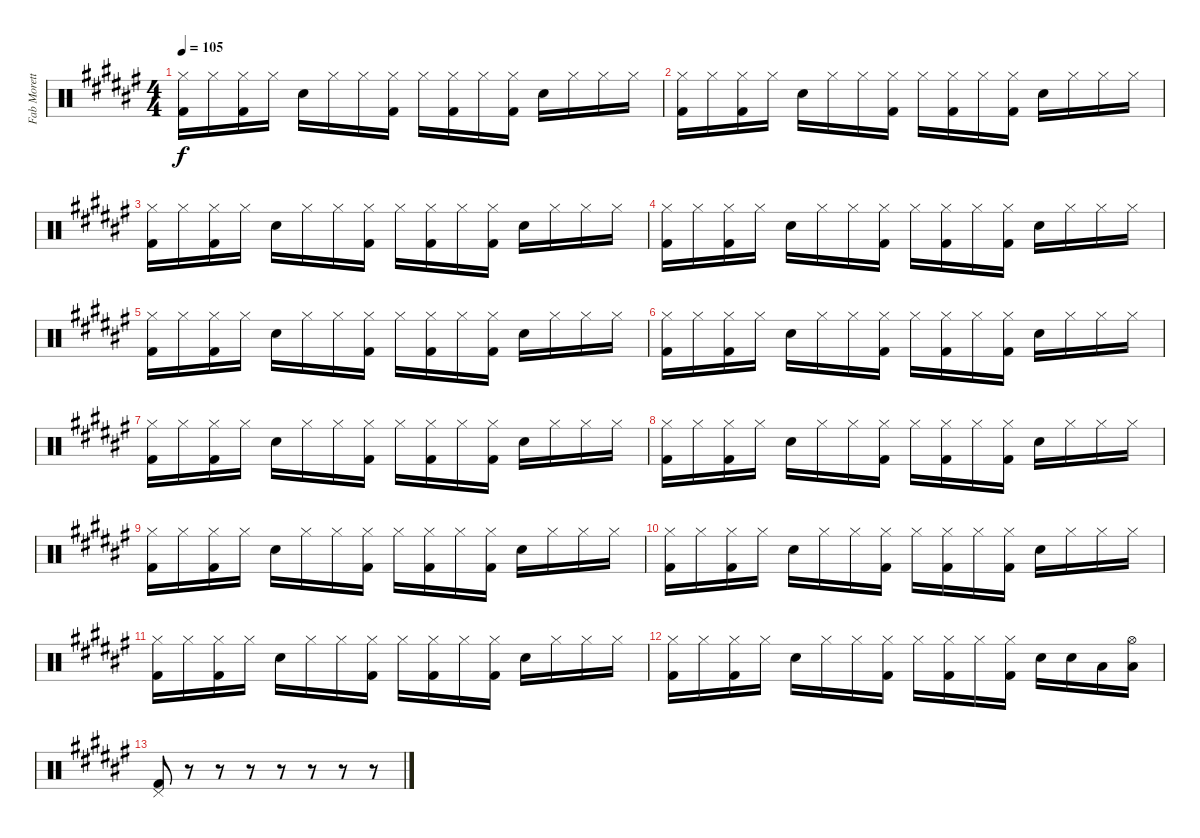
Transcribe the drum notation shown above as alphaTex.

\track ("Fab Moretti - Drums" "Fab Morett") {instrument percussion}
\staff {score}
\articulation defaults
\ts (4 4)
\tempo 105
\clef neutral
\ks f#
("Hi-Hat (closed)" "Kick (hit) 2").16{dy f} "Hi-Hat (closed)".16 ("Hi-Hat (closed)" "Kick (hit) 2").16 "Hi-Hat (closed)".16 "Snare (hit) 2".16 "Hi-Hat (closed)".16 "Hi-Hat (closed)".16 ("Hi-Hat (closed)" "Kick (hit) 2").16 "Hi-Hat (closed)".16 ("Hi-Hat (closed)" "Kick (hit) 2").16 "Hi-Hat (closed)".16 ("Hi-Hat (closed)" "Kick (hit) 2").16 "Snare (hit) 2".16 "Hi-Hat (closed)".16 "Hi-Hat (closed)".16 "Hi-Hat (closed)".16 |
("Hi-Hat (closed)" "Kick (hit) 2").16 "Hi-Hat (closed)".16 ("Hi-Hat (closed)" "Kick (hit) 2").16 "Hi-Hat (closed)".16 "Snare (hit) 2".16 "Hi-Hat (closed)".16 "Hi-Hat (closed)".16 ("Hi-Hat (closed)" "Kick (hit) 2").16 "Hi-Hat (closed)".16 ("Hi-Hat (closed)" "Kick (hit) 2").16 "Hi-Hat (closed)".16 ("Hi-Hat (closed)" "Kick (hit) 2").16 "Snare (hit) 2".16 "Hi-Hat (closed)".16 "Hi-Hat (closed)".16 "Hi-Hat (closed)".16 |
("Hi-Hat (closed)" "Kick (hit) 2").16 "Hi-Hat (closed)".16 ("Hi-Hat (closed)" "Kick (hit) 2").16 "Hi-Hat (closed)".16 "Snare (hit) 2".16 "Hi-Hat (closed)".16 "Hi-Hat (closed)".16 ("Hi-Hat (closed)" "Kick (hit) 2").16 "Hi-Hat (closed)".16 ("Hi-Hat (closed)" "Kick (hit) 2").16 "Hi-Hat (closed)".16 ("Hi-Hat (closed)" "Kick (hit) 2").16 "Snare (hit) 2".16 "Hi-Hat (closed)".16 "Hi-Hat (closed)".16 "Hi-Hat (closed)".16 |
("Hi-Hat (closed)" "Kick (hit) 2").16 "Hi-Hat (closed)".16 ("Hi-Hat (closed)" "Kick (hit) 2").16 "Hi-Hat (closed)".16 "Snare (hit) 2".16 "Hi-Hat (closed)".16 "Hi-Hat (closed)".16 ("Hi-Hat (closed)" "Kick (hit) 2").16 "Hi-Hat (closed)".16 ("Hi-Hat (closed)" "Kick (hit) 2").16 "Hi-Hat (closed)".16 ("Hi-Hat (closed)" "Kick (hit) 2").16 "Snare (hit) 2".16 "Hi-Hat (closed)".16 "Hi-Hat (closed)".16 "Hi-Hat (closed)".16 |
("Hi-Hat (closed)" "Kick (hit) 2").16 "Hi-Hat (closed)".16 ("Hi-Hat (closed)" "Kick (hit) 2").16 "Hi-Hat (closed)".16 "Snare (hit) 2".16 "Hi-Hat (closed)".16 "Hi-Hat (closed)".16 ("Hi-Hat (closed)" "Kick (hit) 2").16 "Hi-Hat (closed)".16 ("Hi-Hat (closed)" "Kick (hit) 2").16 "Hi-Hat (closed)".16 ("Hi-Hat (closed)" "Kick (hit) 2").16 "Snare (hit) 2".16 "Hi-Hat (closed)".16 "Hi-Hat (closed)".16 "Hi-Hat (closed)".16 |
("Hi-Hat (closed)" "Kick (hit) 2").16 "Hi-Hat (closed)".16 ("Hi-Hat (closed)" "Kick (hit) 2").16 "Hi-Hat (closed)".16 "Snare (hit) 2".16 "Hi-Hat (closed)".16 "Hi-Hat (closed)".16 ("Hi-Hat (closed)" "Kick (hit) 2").16 "Hi-Hat (closed)".16 ("Hi-Hat (closed)" "Kick (hit) 2").16 "Hi-Hat (closed)".16 ("Hi-Hat (closed)" "Kick (hit) 2").16 "Snare (hit) 2".16 "Hi-Hat (closed)".16 "Hi-Hat (closed)".16 "Hi-Hat (closed)".16 |
("Hi-Hat (closed)" "Kick (hit) 2").16 "Hi-Hat (closed)".16 ("Hi-Hat (closed)" "Kick (hit) 2").16 "Hi-Hat (closed)".16 "Snare (hit) 2".16 "Hi-Hat (closed)".16 "Hi-Hat (closed)".16 ("Hi-Hat (closed)" "Kick (hit) 2").16 "Hi-Hat (closed)".16 ("Hi-Hat (closed)" "Kick (hit) 2").16 "Hi-Hat (closed)".16 ("Hi-Hat (closed)" "Kick (hit) 2").16 "Snare (hit) 2".16 "Hi-Hat (closed)".16 "Hi-Hat (closed)".16 "Hi-Hat (closed)".16 |
("Hi-Hat (closed)" "Kick (hit) 2").16 "Hi-Hat (closed)".16 ("Hi-Hat (closed)" "Kick (hit) 2").16 "Hi-Hat (closed)".16 "Snare (hit) 2".16 "Hi-Hat (closed)".16 "Hi-Hat (closed)".16 ("Hi-Hat (closed)" "Kick (hit) 2").16 "Hi-Hat (closed)".16 ("Hi-Hat (closed)" "Kick (hit) 2").16 "Hi-Hat (closed)".16 ("Hi-Hat (closed)" "Kick (hit) 2").16 "Snare (hit) 2".16 "Hi-Hat (closed)".16 "Hi-Hat (closed)".16 "Hi-Hat (closed)".16 |
("Hi-Hat (closed)" "Kick (hit) 2").16 "Hi-Hat (closed)".16 ("Hi-Hat (closed)" "Kick (hit) 2").16 "Hi-Hat (closed)".16 "Snare (hit) 2".16 "Hi-Hat (closed)".16 "Hi-Hat (closed)".16 ("Hi-Hat (closed)" "Kick (hit) 2").16 "Hi-Hat (closed)".16 ("Hi-Hat (closed)" "Kick (hit) 2").16 "Hi-Hat (closed)".16 ("Hi-Hat (closed)" "Kick (hit) 2").16 "Snare (hit) 2".16 "Hi-Hat (closed)".16 "Hi-Hat (closed)".16 "Hi-Hat (closed)".16 |
("Hi-Hat (closed)" "Kick (hit) 2").16 "Hi-Hat (closed)".16 ("Hi-Hat (closed)" "Kick (hit) 2").16 "Hi-Hat (closed)".16 "Snare (hit) 2".16 "Hi-Hat (closed)".16 "Hi-Hat (closed)".16 ("Hi-Hat (closed)" "Kick (hit) 2").16 "Hi-Hat (closed)".16 ("Hi-Hat (closed)" "Kick (hit) 2").16 "Hi-Hat (closed)".16 ("Hi-Hat (closed)" "Kick (hit) 2").16 "Snare (hit) 2".16 "Hi-Hat (closed)".16 "Hi-Hat (closed)".16 "Hi-Hat (closed)".16 |
("Hi-Hat (closed)" "Kick (hit) 2").16 "Hi-Hat (closed)".16 ("Hi-Hat (closed)" "Kick (hit) 2").16 "Hi-Hat (closed)".16 "Snare (hit) 2".16 "Hi-Hat (closed)".16 "Hi-Hat (closed)".16 ("Hi-Hat (closed)" "Kick (hit) 2").16 "Hi-Hat (closed)".16 ("Hi-Hat (closed)" "Kick (hit) 2").16 "Hi-Hat (closed)".16 ("Hi-Hat (closed)" "Kick (hit) 2").16 "Snare (hit) 2".16 "Hi-Hat (closed)".16 "Hi-Hat (closed)".16 "Hi-Hat (closed)".16 |
("Hi-Hat (closed)" "Kick (hit) 2").16 "Hi-Hat (closed)".16 ("Hi-Hat (closed)" "Kick (hit) 2").16 "Hi-Hat (closed)".16 "Snare (hit) 2".16 "Hi-Hat (closed)".16 "Hi-Hat (closed)".16 ("Hi-Hat (closed)" "Kick (hit) 2").16 "Hi-Hat (closed)".16 ("Hi-Hat (closed)" "Kick (hit) 2").16 "Hi-Hat (closed)".16 ("Hi-Hat (closed)" "Kick (hit) 2").16 "Snare (hit) 2".16 "Snare (hit) 2".16 "Low Tom (hit)".16 ("Hi-Hat (open)" "Low Tom (hit)").16 |
("Pedal Hi-Hat (hit)" "Kick (hit) 2").8 r.8 r.8 r.8 r.8 r.8 r.8 r.8
